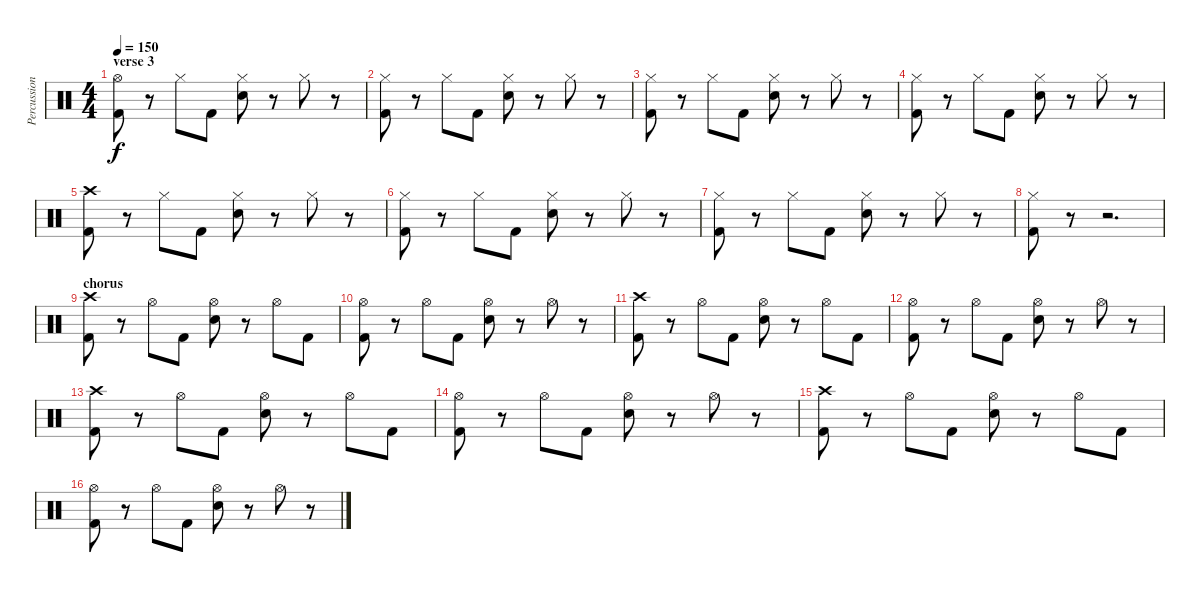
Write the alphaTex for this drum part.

\track ("Percussion" "Percussion") {instrument percussion}
\staff {score}
\articulation defaults
\ts (4 4)
\section ("" "verse 3")
\tempo 150
\clef neutral
\ks c
("Hi-Hat (open)" "Kick (hit) 2").8{dy f} r.8 "Hi-Hat (closed)".8 "Kick (hit) 2".8 ("Hi-Hat (closed)" "Electric Snare (hit)").8 r.8 "Hi-Hat (closed)".8 r.8 |
("Hi-Hat (closed)" "Kick (hit) 2").8 r.8 "Hi-Hat (closed)".8 "Kick (hit) 2".8 ("Hi-Hat (closed)" "Electric Snare (hit)").8 r.8 "Hi-Hat (closed)".8 r.8 |
("Hi-Hat (closed)" "Kick (hit) 2").8 r.8 "Hi-Hat (closed)".8 "Kick (hit) 2".8 ("Hi-Hat (closed)" "Electric Snare (hit)").8 r.8 "Hi-Hat (closed)".8 r.8 |
("Hi-Hat (closed)" "Kick (hit) 2").8 r.8 "Hi-Hat (closed)".8 "Kick (hit) 2".8 ("Hi-Hat (closed)" "Electric Snare (hit)").8 r.8 "Hi-Hat (closed)".8 r.8 |
("Crash high (hit)" "Kick (hit) 2").8 r.8 "Hi-Hat (closed)".8 "Kick (hit) 2".8 ("Hi-Hat (closed)" "Electric Snare (hit)").8 r.8 "Hi-Hat (closed)".8 r.8 |
("Hi-Hat (closed)" "Kick (hit) 2").8 r.8 "Hi-Hat (closed)".8 "Kick (hit) 2".8 ("Hi-Hat (closed)" "Electric Snare (hit)").8 r.8 "Hi-Hat (closed)".8 r.8 |
("Hi-Hat (closed)" "Kick (hit) 2").8 r.8 "Hi-Hat (closed)".8 "Kick (hit) 2".8 ("Hi-Hat (closed)" "Electric Snare (hit)").8 r.8 "Hi-Hat (closed)".8 r.8 |
("Hi-Hat (closed)" "Kick (hit) 2").8 r.8 r.2{d} |
\section ("" "chorus")
("Crash high (hit)" "Kick (hit) 2").8 r.8 "Hi-Hat (open)".8 "Kick (hit) 2".8 ("Hi-Hat (open)" "Electric Snare (hit)").8 r.8 "Hi-Hat (open)".8 "Kick (hit) 2".8 |
("Hi-Hat (open)" "Kick (hit) 2").8 r.8 "Hi-Hat (open)".8 "Kick (hit) 2".8 ("Hi-Hat (open)" "Electric Snare (hit)").8 r.8 "Hi-Hat (open)".8 r.8 |
("Crash high (hit)" "Kick (hit) 2").8 r.8 "Hi-Hat (open)".8 "Kick (hit) 2".8 ("Hi-Hat (open)" "Electric Snare (hit)").8 r.8 "Hi-Hat (open)".8 "Kick (hit) 2".8 |
("Hi-Hat (open)" "Kick (hit) 2").8 r.8 "Hi-Hat (open)".8 "Kick (hit) 2".8 ("Hi-Hat (open)" "Electric Snare (hit)").8 r.8 "Hi-Hat (open)".8 r.8 |
("Crash high (hit)" "Kick (hit) 2").8 r.8 "Hi-Hat (open)".8 "Kick (hit) 2".8 ("Hi-Hat (open)" "Electric Snare (hit)").8 r.8 "Hi-Hat (open)".8 "Kick (hit) 2".8 |
("Hi-Hat (open)" "Kick (hit) 2").8 r.8 "Hi-Hat (open)".8 "Kick (hit) 2".8 ("Hi-Hat (open)" "Electric Snare (hit)").8 r.8 "Hi-Hat (open)".8 r.8 |
("Crash high (hit)" "Kick (hit) 2").8 r.8 "Hi-Hat (open)".8 "Kick (hit) 2".8 ("Hi-Hat (open)" "Electric Snare (hit)").8 r.8 "Hi-Hat (open)".8 "Kick (hit) 2".8 |
("Hi-Hat (open)" "Kick (hit) 2").8 r.8 "Hi-Hat (open)".8 "Kick (hit) 2".8 ("Hi-Hat (open)" "Electric Snare (hit)").8 r.8 "Hi-Hat (open)".8 r.8
